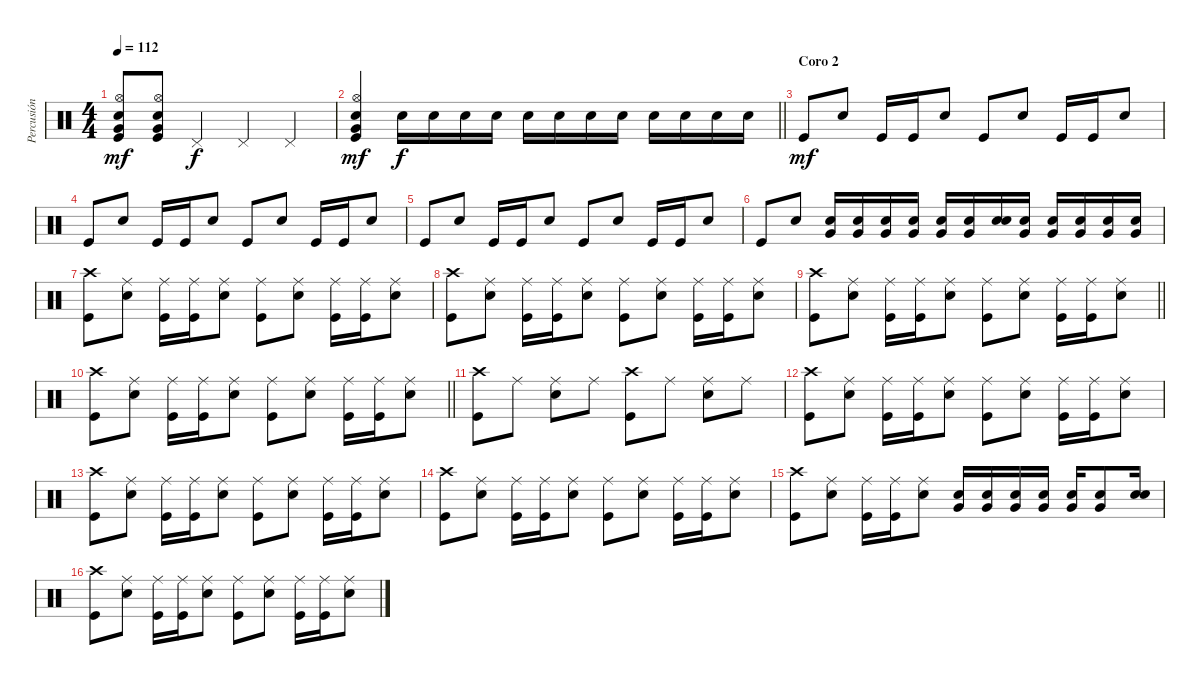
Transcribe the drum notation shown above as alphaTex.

\track ("Percusión" "Percusión") {instrument percussion}
\staff {score}
\articulation defaults
\ts (4 4)
\tempo 112
\clef neutral
\ks c
("Snare (hit) 2" "Very Low Tom (hit)" "Hi-Hat (open)" "Kick (hit)").8{dy mf} ("Snare (hit) 2" "Very Low Tom (hit)" "Hi-Hat (open)" "Kick (hit)").8 "Pedal Hi-Hat (hit)".4{dy f} "Pedal Hi-Hat (hit)".4 "Pedal Hi-Hat (hit)".4 |
\barLineRight lightlight
("Snare (hit) 2" "Very Low Tom (hit)" "Hi-Hat (open)" "Kick (hit)").4{dy mf} "Snare (hit) 2".16{dy f} "Snare (hit) 2".16 "Snare (hit) 2".16 "Snare (hit) 2".16 "Snare (hit) 2".16 "Snare (hit) 2".16 "Snare (hit) 2".16 "Snare (hit) 2".16 "Snare (hit) 2".16 "Snare (hit) 2".16 "Snare (hit) 2".16 "Snare (hit) 2".16 |
\section ("" "Coro 2")
"Kick (hit)".8{dy mf} "Snare (hit) 2".8 "Kick (hit)".16 "Kick (hit)".16 "Snare (hit) 2".8 "Kick (hit)".8 "Snare (hit) 2".8 "Kick (hit)".16 "Kick (hit)".16 "Snare (hit) 2".8 |
"Kick (hit)".8 "Snare (hit) 2".8 "Kick (hit)".16 "Kick (hit)".16 "Snare (hit) 2".8 "Kick (hit)".8 "Snare (hit) 2".8 "Kick (hit)".16 "Kick (hit)".16 "Snare (hit) 2".8 |
"Kick (hit)".8 "Snare (hit) 2".8 "Kick (hit)".16 "Kick (hit)".16 "Snare (hit) 2".8 "Kick (hit)".8 "Snare (hit) 2".8 "Kick (hit)".16 "Kick (hit)".16 "Snare (hit) 2".8 |
"Kick (hit)".8 "Snare (hit) 2".8 ("Very Low Tom (hit)" "Snare (hit) 2").16 ("Very Low Tom (hit)" "Snare (hit) 2").16 ("Very Low Tom (hit)" "Snare (hit) 2").16 ("Very Low Tom (hit)" "Snare (hit) 2").16 ("Very Low Tom (hit)" "Snare (hit) 2").16 ("Very Low Tom (hit)" "Snare (hit) 2").16 ("Snare (hit) 2" "Snare (hit) 2").16 ("Very Low Tom (hit)" "Snare (hit) 2").16 ("Very Low Tom (hit)" "Snare (hit) 2").16 ("Very Low Tom (hit)" "Snare (hit) 2").16 ("Very Low Tom (hit)" "Snare (hit) 2").16 ("Very Low Tom (hit)" "Snare (hit) 2").16 |
("Crash high (hit)" "Kick (hit)").8 ("Ride (middle)" "Snare (hit) 2").8 ("Ride (middle)" "Kick (hit)").16 ("Ride (middle)" "Kick (hit)").16 ("Ride (middle)" "Snare (hit) 2").8 ("Ride (middle)" "Kick (hit)").8 ("Ride (middle)" "Snare (hit) 2").8 ("Ride (middle)" "Kick (hit)").16 ("Ride (middle)" "Kick (hit)").16 ("Ride (middle)" "Snare (hit) 2").8 |
("Crash high (hit)" "Kick (hit)").8 ("Ride (middle)" "Snare (hit) 2").8 ("Ride (middle)" "Kick (hit)").16 ("Ride (middle)" "Kick (hit)").16 ("Ride (middle)" "Snare (hit) 2").8 ("Ride (middle)" "Kick (hit)").8 ("Ride (middle)" "Snare (hit) 2").8 ("Ride (middle)" "Kick (hit)").16 ("Ride (middle)" "Kick (hit)").16 ("Ride (middle)" "Snare (hit) 2").8 |
\barLineRight lightlight
("Crash high (hit)" "Kick (hit)").8 ("Ride (middle)" "Snare (hit) 2").8 ("Ride (middle)" "Kick (hit)").16 ("Ride (middle)" "Kick (hit)").16 ("Ride (middle)" "Snare (hit) 2").8 ("Ride (middle)" "Kick (hit)").8 ("Ride (middle)" "Snare (hit) 2").8 ("Ride (middle)" "Kick (hit)").16 ("Ride (middle)" "Kick (hit)").16 ("Ride (middle)" "Snare (hit) 2").8 |
\barLineRight lightlight
("Crash high (hit)" "Kick (hit)").8 ("Ride (middle)" "Snare (hit) 2").8 ("Ride (middle)" "Kick (hit)").16 ("Ride (middle)" "Kick (hit)").16 ("Ride (middle)" "Snare (hit) 2").8 ("Ride (middle)" "Kick (hit)").8 ("Ride (middle)" "Snare (hit) 2").8 ("Ride (middle)" "Kick (hit)").16 ("Ride (middle)" "Kick (hit)").16 ("Ride (middle)" "Snare (hit) 2").8 |
("Crash high (hit)" "Kick (hit)").8 "Ride (middle)".8 ("Ride (middle)" "Snare (hit) 2").8 "Ride (middle)".8 ("Crash high (hit)" "Kick (hit)").8 "Ride (middle)".8 ("Ride (middle)" "Snare (hit) 2").8 "Ride (middle)".8 |
("Crash high (hit)" "Kick (hit)").8 ("Ride (middle)" "Snare (hit) 2").8 ("Ride (middle)" "Kick (hit)").16 ("Ride (middle)" "Kick (hit)").16 ("Ride (middle)" "Snare (hit) 2").8 ("Ride (middle)" "Kick (hit)").8 ("Ride (middle)" "Snare (hit) 2").8 ("Ride (middle)" "Kick (hit)").16 ("Ride (middle)" "Kick (hit)").16 ("Ride (middle)" "Snare (hit) 2").8 |
("Crash high (hit)" "Kick (hit)").8 ("Ride (middle)" "Snare (hit) 2").8 ("Ride (middle)" "Kick (hit)").16 ("Ride (middle)" "Kick (hit)").16 ("Ride (middle)" "Snare (hit) 2").8 ("Ride (middle)" "Kick (hit)").8 ("Ride (middle)" "Snare (hit) 2").8 ("Ride (middle)" "Kick (hit)").16 ("Ride (middle)" "Kick (hit)").16 ("Ride (middle)" "Snare (hit) 2").8 |
("Crash high (hit)" "Kick (hit)").8 ("Ride (middle)" "Snare (hit) 2").8 ("Ride (middle)" "Kick (hit)").16 ("Ride (middle)" "Kick (hit)").16 ("Ride (middle)" "Snare (hit) 2").8 ("Ride (middle)" "Kick (hit)").8 ("Ride (middle)" "Snare (hit) 2").8 ("Ride (middle)" "Kick (hit)").16 ("Ride (middle)" "Kick (hit)").16 ("Ride (middle)" "Snare (hit) 2").8 |
("Crash high (hit)" "Kick (hit)").8 ("Ride (middle)" "Snare (hit) 2").8 ("Ride (middle)" "Kick (hit)").16 ("Ride (middle)" "Kick (hit)").16 ("Ride (middle)" "Snare (hit) 2").8 ("Very Low Tom (hit)" "Snare (hit) 2").16 ("Very Low Tom (hit)" "Snare (hit) 2").16 ("Very Low Tom (hit)" "Snare (hit) 2").16 ("Very Low Tom (hit)" "Snare (hit) 2").16 ("Very Low Tom (hit)" "Snare (hit) 2").16 ("Very Low Tom (hit)" "Snare (hit) 2").8 ("Snare (hit) 2" "Snare (hit) 2").16 |
("Crash high (hit)" "Kick (hit)").8 ("Ride (middle)" "Snare (hit) 2").8 ("Ride (middle)" "Kick (hit)").16 ("Ride (middle)" "Kick (hit)").16 ("Ride (middle)" "Snare (hit) 2").8 ("Ride (middle)" "Kick (hit)").8 ("Ride (middle)" "Snare (hit) 2").8 ("Ride (middle)" "Kick (hit)").16 ("Ride (middle)" "Kick (hit)").16 ("Ride (middle)" "Snare (hit) 2").8
